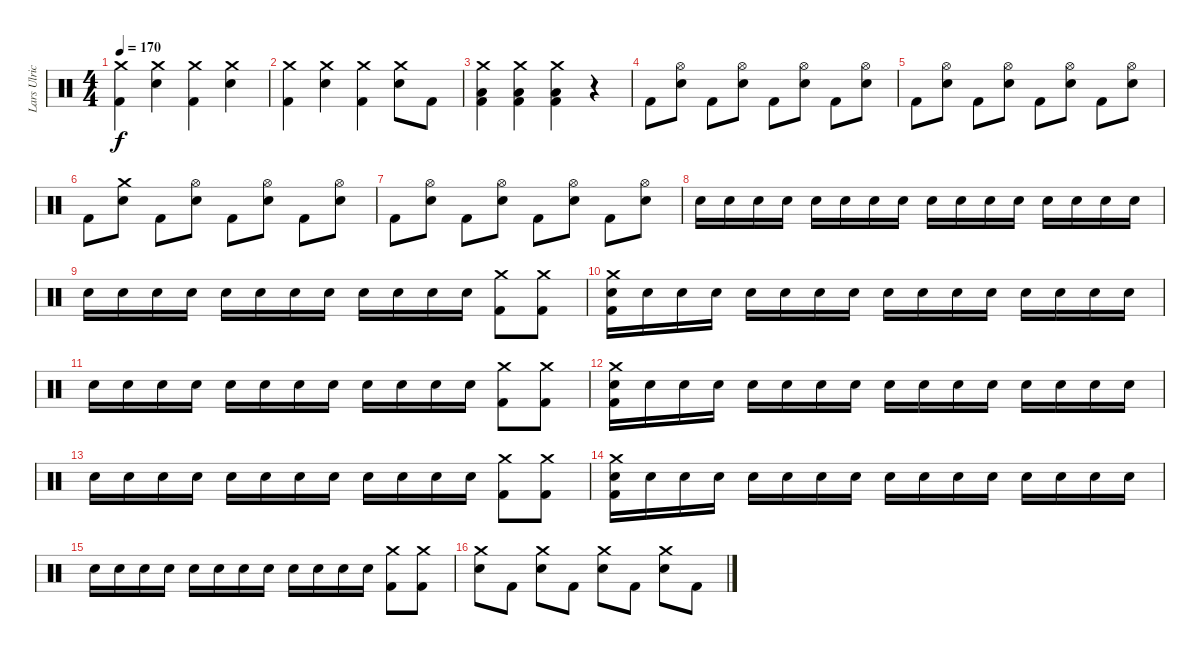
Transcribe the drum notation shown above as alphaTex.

\track ("Lars Ulrich" "Lars Ulric") {instrument percussion}
\staff {score}
\articulation defaults
\ts (4 4)
\tempo 170
\clef neutral
\ks c
("Crash medium (hit)" "Kick (hit) 2").4{dy f} ("Crash medium (hit)" "Electric Snare (hit)").4 ("Crash medium (hit)" "Kick (hit) 2").4 ("Crash medium (hit)" "Electric Snare (hit)").4 |
("Crash medium (hit)" "Kick (hit) 2").4 ("Crash medium (hit)" "Electric Snare (hit)").4 ("Crash medium (hit)" "Kick (hit) 2").4 ("Crash medium (hit)" "Electric Snare (hit)").8 "Kick (hit) 2".8 |
("Crash medium (hit)" "Low Floor Tom (hit)" "Kick (hit) 2").4 ("Crash medium (hit)" "Low Floor Tom (hit)" "Kick (hit) 2").4 ("Crash medium (hit)" "Low Floor Tom (hit)" "Kick (hit) 2").4 r.4 |
"Kick (hit) 2".8 ("Hi-Hat (open)" "Electric Snare (hit)").8 "Kick (hit) 2".8 ("Hi-Hat (open)" "Electric Snare (hit)").8 "Kick (hit) 2".8 ("Hi-Hat (open)" "Electric Snare (hit)").8 "Kick (hit) 2".8 ("Hi-Hat (open)" "Electric Snare (hit)").8 |
"Kick (hit) 2".8 ("Hi-Hat (open)" "Electric Snare (hit)").8 "Kick (hit) 2".8 ("Hi-Hat (open)" "Electric Snare (hit)").8 "Kick (hit) 2".8 ("Hi-Hat (open)" "Electric Snare (hit)").8 "Kick (hit) 2".8 ("Hi-Hat (open)" "Electric Snare (hit)").8 |
"Kick (hit) 2".8 ("Crash medium (hit)" "Electric Snare (hit)").8 "Kick (hit) 2".8 ("Hi-Hat (open)" "Electric Snare (hit)").8 "Kick (hit) 2".8 ("Hi-Hat (open)" "Electric Snare (hit)").8 "Kick (hit) 2".8 ("Hi-Hat (open)" "Electric Snare (hit)").8 |
"Kick (hit) 2".8 ("Hi-Hat (open)" "Electric Snare (hit)").8 "Kick (hit) 2".8 ("Hi-Hat (open)" "Electric Snare (hit)").8 "Kick (hit) 2".8 ("Hi-Hat (open)" "Electric Snare (hit)").8 "Kick (hit) 2".8 ("Hi-Hat (open)" "Electric Snare (hit)").8 |
"Electric Snare (hit)".16 "Electric Snare (hit)".16 "Electric Snare (hit)".16 "Electric Snare (hit)".16 "Electric Snare (hit)".16 "Electric Snare (hit)".16 "Electric Snare (hit)".16 "Electric Snare (hit)".16 "Electric Snare (hit)".16 "Electric Snare (hit)".16 "Electric Snare (hit)".16 "Electric Snare (hit)".16 "Electric Snare (hit)".16 "Electric Snare (hit)".16 "Electric Snare (hit)".16 "Electric Snare (hit)".16 |
"Electric Snare (hit)".16 "Electric Snare (hit)".16 "Electric Snare (hit)".16 "Electric Snare (hit)".16 "Electric Snare (hit)".16 "Electric Snare (hit)".16 "Electric Snare (hit)".16 "Electric Snare (hit)".16 "Electric Snare (hit)".16 "Electric Snare (hit)".16 "Electric Snare (hit)".16 "Electric Snare (hit)".16 ("Crash medium (hit)" "Kick (hit) 2").8 ("Crash medium (hit)" "Kick (hit) 2").8 |
("Crash medium (hit)" "Electric Snare (hit)" "Kick (hit) 2").16 "Electric Snare (hit)".16 "Electric Snare (hit)".16 "Electric Snare (hit)".16 "Electric Snare (hit)".16 "Electric Snare (hit)".16 "Electric Snare (hit)".16 "Electric Snare (hit)".16 "Electric Snare (hit)".16 "Electric Snare (hit)".16 "Electric Snare (hit)".16 "Electric Snare (hit)".16 "Electric Snare (hit)".16 "Electric Snare (hit)".16 "Electric Snare (hit)".16 "Electric Snare (hit)".16 |
"Electric Snare (hit)".16 "Electric Snare (hit)".16 "Electric Snare (hit)".16 "Electric Snare (hit)".16 "Electric Snare (hit)".16 "Electric Snare (hit)".16 "Electric Snare (hit)".16 "Electric Snare (hit)".16 "Electric Snare (hit)".16 "Electric Snare (hit)".16 "Electric Snare (hit)".16 "Electric Snare (hit)".16 ("Crash medium (hit)" "Kick (hit) 2").8 ("Crash medium (hit)" "Kick (hit) 2").8 |
("Crash medium (hit)" "Electric Snare (hit)" "Kick (hit) 2").16 "Electric Snare (hit)".16 "Electric Snare (hit)".16 "Electric Snare (hit)".16 "Electric Snare (hit)".16 "Electric Snare (hit)".16 "Electric Snare (hit)".16 "Electric Snare (hit)".16 "Electric Snare (hit)".16 "Electric Snare (hit)".16 "Electric Snare (hit)".16 "Electric Snare (hit)".16 "Electric Snare (hit)".16 "Electric Snare (hit)".16 "Electric Snare (hit)".16 "Electric Snare (hit)".16 |
"Electric Snare (hit)".16 "Electric Snare (hit)".16 "Electric Snare (hit)".16 "Electric Snare (hit)".16 "Electric Snare (hit)".16 "Electric Snare (hit)".16 "Electric Snare (hit)".16 "Electric Snare (hit)".16 "Electric Snare (hit)".16 "Electric Snare (hit)".16 "Electric Snare (hit)".16 "Electric Snare (hit)".16 ("Crash medium (hit)" "Kick (hit) 2").8 ("Crash medium (hit)" "Kick (hit) 2").8 |
("Crash medium (hit)" "Electric Snare (hit)" "Kick (hit) 2").16 "Electric Snare (hit)".16 "Electric Snare (hit)".16 "Electric Snare (hit)".16 "Electric Snare (hit)".16 "Electric Snare (hit)".16 "Electric Snare (hit)".16 "Electric Snare (hit)".16 "Electric Snare (hit)".16 "Electric Snare (hit)".16 "Electric Snare (hit)".16 "Electric Snare (hit)".16 "Electric Snare (hit)".16 "Electric Snare (hit)".16 "Electric Snare (hit)".16 "Electric Snare (hit)".16 |
"Electric Snare (hit)".16 "Electric Snare (hit)".16 "Electric Snare (hit)".16 "Electric Snare (hit)".16 "Electric Snare (hit)".16 "Electric Snare (hit)".16 "Electric Snare (hit)".16 "Electric Snare (hit)".16 "Electric Snare (hit)".16 "Electric Snare (hit)".16 "Electric Snare (hit)".16 "Electric Snare (hit)".16 ("Crash medium (hit)" "Kick (hit) 2").8 ("Crash medium (hit)" "Kick (hit) 2").8 |
("Crash medium (hit)" "Electric Snare (hit)").8 "Kick (hit) 2".8 ("Crash medium (hit)" "Electric Snare (hit)").8 "Kick (hit) 2".8 ("Crash medium (hit)" "Electric Snare (hit)").8 "Kick (hit) 2".8 ("Crash medium (hit)" "Electric Snare (hit)").8 "Kick (hit) 2".8
